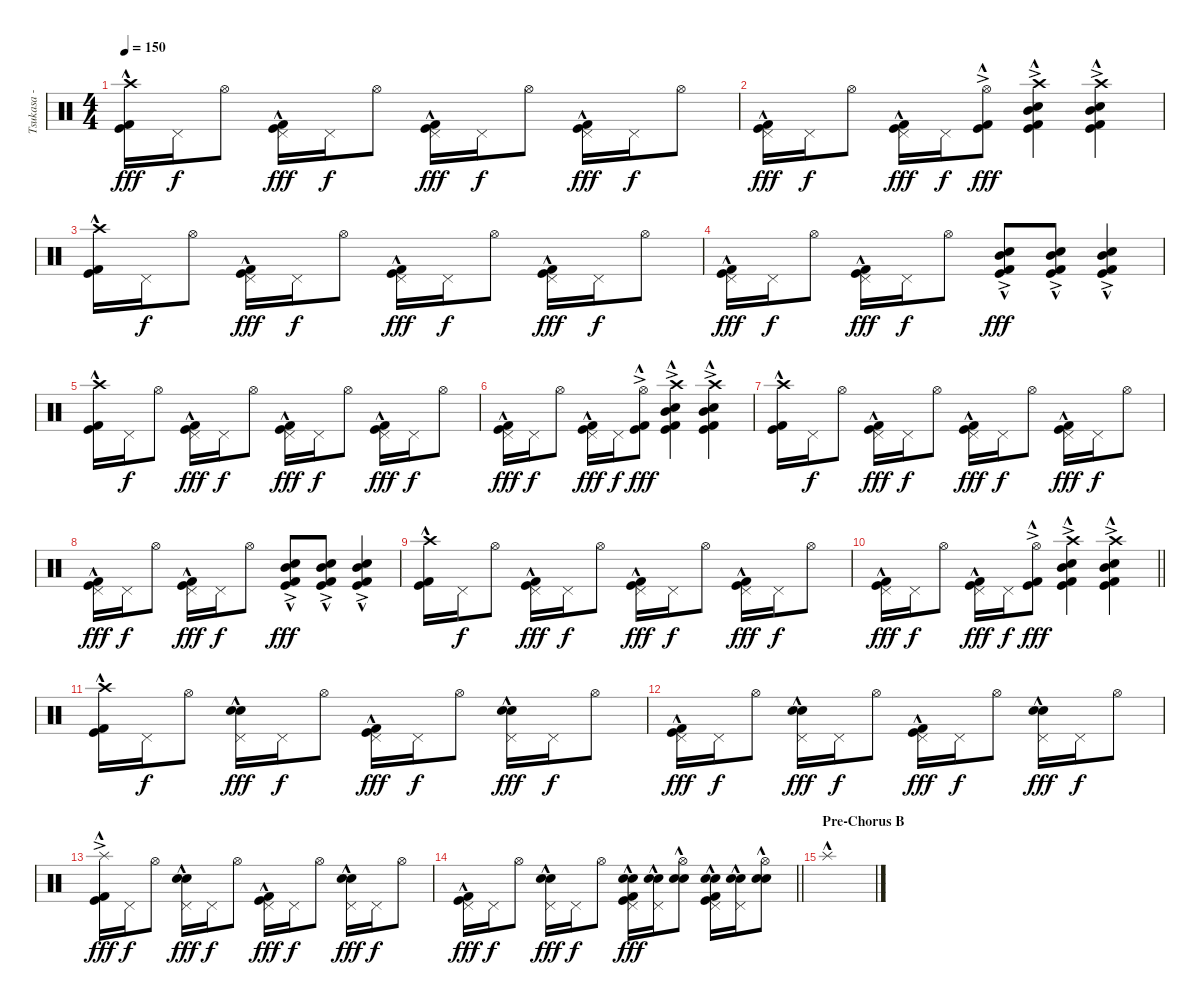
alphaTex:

\track ("Tsukasa - Drums" "Tsukasa - ") {instrument percussion}
\staff {score}
\articulation defaults
\ts (4 4)
\tempo 150
\clef neutral
\ks c
("Crash high (hit)" "Kick (hit)" "Kick (hit) 2"{hac}).16{dy fff} "Pedal Hi-Hat (hit)".16{dy f} "Hi-Hat (open)".8 ("Pedal Hi-Hat (hit)" "Kick (hit)" "Kick (hit) 2"{hac}).16{dy fff} "Pedal Hi-Hat (hit)".16{dy f} "Hi-Hat (open)".8 ("Pedal Hi-Hat (hit)" "Kick (hit)" "Kick (hit) 2"{hac}).16{dy fff} "Pedal Hi-Hat (hit)".16{dy f} "Hi-Hat (open)".8 ("Pedal Hi-Hat (hit)" "Kick (hit)" "Kick (hit) 2"{hac}).16{dy fff} "Pedal Hi-Hat (hit)".16{dy f} "Hi-Hat (open)".8 |
("Pedal Hi-Hat (hit)" "Kick (hit)" "Kick (hit) 2"{hac}).16{dy fff} "Pedal Hi-Hat (hit)".16{dy f} "Hi-Hat (open)".8 ("Pedal Hi-Hat (hit)" "Kick (hit)" "Kick (hit) 2"{hac}).16{dy fff} "Pedal Hi-Hat (hit)".16{dy f} ("Hi-Hat (open)" "Kick (hit)"{ac} "Kick (hit) 2"{hac}).8{dy fff} ("Crash high (hit)" "Electric Snare (hit)" "Mid Tom (hit)" "Kick (hit)"{ac} "Kick (hit) 2"{hac}).4 ("Crash high (hit)" "Electric Snare (hit)" "Mid Tom (hit)" "Kick (hit)"{ac} "Kick (hit) 2"{hac}).4 |
("Crash high (hit)" "Kick (hit)" "Kick (hit) 2"{hac}).16 "Pedal Hi-Hat (hit)".16{dy f} "Hi-Hat (open)".8 ("Pedal Hi-Hat (hit)" "Kick (hit)" "Kick (hit) 2"{hac}).16{dy fff} "Pedal Hi-Hat (hit)".16{dy f} "Hi-Hat (open)".8 ("Pedal Hi-Hat (hit)" "Kick (hit)" "Kick (hit) 2"{hac}).16{dy fff} "Pedal Hi-Hat (hit)".16{dy f} "Hi-Hat (open)".8 ("Pedal Hi-Hat (hit)" "Kick (hit)" "Kick (hit) 2"{hac}).16{dy fff} "Pedal Hi-Hat (hit)".16{dy f} "Hi-Hat (open)".8 |
("Pedal Hi-Hat (hit)" "Kick (hit)" "Kick (hit) 2"{hac}).16{dy fff} "Pedal Hi-Hat (hit)".16{dy f} "Hi-Hat (open)".8 ("Pedal Hi-Hat (hit)" "Kick (hit)" "Kick (hit) 2"{hac}).16{dy fff} "Pedal Hi-Hat (hit)".16{dy f} "Hi-Hat (open)".8 ("Electric Snare (hit)" "Mid Tom (hit)" "Kick (hit)"{ac} "Kick (hit) 2"{hac}).8{dy fff} ("Electric Snare (hit)" "Mid Tom (hit)" "Kick (hit)"{ac} "Kick (hit) 2"{hac}).8 ("Electric Snare (hit)" "Mid Tom (hit)" "Kick (hit)"{ac} "Kick (hit) 2"{hac}).4 |
("Crash high (hit)" "Kick (hit)" "Kick (hit) 2"{hac}).16 "Pedal Hi-Hat (hit)".16{dy f} "Hi-Hat (open)".8 ("Pedal Hi-Hat (hit)" "Kick (hit)" "Kick (hit) 2"{hac}).16{dy fff} "Pedal Hi-Hat (hit)".16{dy f} "Hi-Hat (open)".8 ("Pedal Hi-Hat (hit)" "Kick (hit)" "Kick (hit) 2"{hac}).16{dy fff} "Pedal Hi-Hat (hit)".16{dy f} "Hi-Hat (open)".8 ("Pedal Hi-Hat (hit)" "Kick (hit)" "Kick (hit) 2"{hac}).16{dy fff} "Pedal Hi-Hat (hit)".16{dy f} "Hi-Hat (open)".8 |
("Pedal Hi-Hat (hit)" "Kick (hit)" "Kick (hit) 2"{hac}).16{dy fff} "Pedal Hi-Hat (hit)".16{dy f} "Hi-Hat (open)".8 ("Pedal Hi-Hat (hit)" "Kick (hit)" "Kick (hit) 2"{hac}).16{dy fff} "Pedal Hi-Hat (hit)".16{dy f} ("Hi-Hat (open)" "Kick (hit)"{ac} "Kick (hit) 2"{hac}).8{dy fff} ("Crash high (hit)" "Electric Snare (hit)" "Mid Tom (hit)" "Kick (hit)"{ac} "Kick (hit) 2"{hac}).4 ("Crash high (hit)" "Electric Snare (hit)" "Mid Tom (hit)" "Kick (hit)"{ac} "Kick (hit) 2"{hac}).4 |
("Crash high (hit)" "Kick (hit)" "Kick (hit) 2"{hac}).16 "Pedal Hi-Hat (hit)".16{dy f} "Hi-Hat (open)".8 ("Pedal Hi-Hat (hit)" "Kick (hit)" "Kick (hit) 2"{hac}).16{dy fff} "Pedal Hi-Hat (hit)".16{dy f} "Hi-Hat (open)".8 ("Pedal Hi-Hat (hit)" "Kick (hit)" "Kick (hit) 2"{hac}).16{dy fff} "Pedal Hi-Hat (hit)".16{dy f} "Hi-Hat (open)".8 ("Pedal Hi-Hat (hit)" "Kick (hit)" "Kick (hit) 2"{hac}).16{dy fff} "Pedal Hi-Hat (hit)".16{dy f} "Hi-Hat (open)".8 |
("Pedal Hi-Hat (hit)" "Kick (hit)" "Kick (hit) 2"{hac}).16{dy fff} "Pedal Hi-Hat (hit)".16{dy f} "Hi-Hat (open)".8 ("Pedal Hi-Hat (hit)" "Kick (hit)" "Kick (hit) 2"{hac}).16{dy fff} "Pedal Hi-Hat (hit)".16{dy f} "Hi-Hat (open)".8 ("Electric Snare (hit)" "Mid Tom (hit)" "Kick (hit)"{ac} "Kick (hit) 2"{hac}).8{dy fff} ("Electric Snare (hit)" "Mid Tom (hit)" "Kick (hit)"{ac} "Kick (hit) 2"{hac}).8 ("Electric Snare (hit)" "Mid Tom (hit)" "Kick (hit)"{ac} "Kick (hit) 2"{hac}).4 |
("Crash high (hit)" "Kick (hit)" "Kick (hit) 2"{hac}).16 "Pedal Hi-Hat (hit)".16{dy f} "Hi-Hat (open)".8 ("Pedal Hi-Hat (hit)" "Kick (hit)" "Kick (hit) 2"{hac}).16{dy fff} "Pedal Hi-Hat (hit)".16{dy f} "Hi-Hat (open)".8 ("Pedal Hi-Hat (hit)" "Kick (hit)" "Kick (hit) 2"{hac}).16{dy fff} "Pedal Hi-Hat (hit)".16{dy f} "Hi-Hat (open)".8 ("Pedal Hi-Hat (hit)" "Kick (hit)" "Kick (hit) 2"{hac}).16{dy fff} "Pedal Hi-Hat (hit)".16{dy f} "Hi-Hat (open)".8 |
\barLineRight lightlight
("Pedal Hi-Hat (hit)" "Kick (hit)" "Kick (hit) 2"{hac}).16{dy fff} "Pedal Hi-Hat (hit)".16{dy f} "Hi-Hat (open)".8 ("Pedal Hi-Hat (hit)" "Kick (hit)" "Kick (hit) 2"{hac}).16{dy fff} "Pedal Hi-Hat (hit)".16{dy f} ("Hi-Hat (open)" "Kick (hit)"{ac} "Kick (hit) 2"{hac}).8{dy fff} ("Crash high (hit)" "Electric Snare (hit)" "Mid Tom (hit)" "Kick (hit)"{ac} "Kick (hit) 2"{hac}).4 ("Crash high (hit)" "Electric Snare (hit)" "Mid Tom (hit)" "Kick (hit)"{ac} "Kick (hit) 2"{hac}).4 |
\section ("" "")
("Crash high (hit)" "Kick (hit)" "Kick (hit) 2"{hac}).16 "Pedal Hi-Hat (hit)".16{dy f} "Hi-Hat (open)".8 ("Pedal Hi-Hat (hit)" "Electric Snare (hit)"{hac} "Snare (hit) 2").16{dy fff} "Pedal Hi-Hat (hit)".16{dy f} "Hi-Hat (open)".8 ("Pedal Hi-Hat (hit)" "Kick (hit)" "Kick (hit) 2"{hac}).16{dy fff} "Pedal Hi-Hat (hit)".16{dy f} "Hi-Hat (open)".8 ("Pedal Hi-Hat (hit)" "Electric Snare (hit)"{hac} "Snare (hit) 2").16{dy fff} "Pedal Hi-Hat (hit)".16{dy f} "Hi-Hat (open)".8 |
("Pedal Hi-Hat (hit)" "Kick (hit)" "Kick (hit) 2"{hac}).16{dy fff} "Pedal Hi-Hat (hit)".16{dy f} "Hi-Hat (open)".8 ("Pedal Hi-Hat (hit)" "Electric Snare (hit)"{hac} "Snare (hit) 2").16{dy fff} "Pedal Hi-Hat (hit)".16{dy f} "Hi-Hat (open)".8 ("Pedal Hi-Hat (hit)" "Kick (hit)" "Kick (hit) 2"{hac}).16{dy fff} "Pedal Hi-Hat (hit)".16{dy f} "Hi-Hat (open)".8 ("Pedal Hi-Hat (hit)" "Electric Snare (hit)"{hac} "Snare (hit) 2").16{dy fff} "Pedal Hi-Hat (hit)".16{dy f} "Hi-Hat (open)".8 |
("Splash (hit)"{ac} "Kick (hit)" "Kick (hit) 2"{hac}).16{dy fff} "Pedal Hi-Hat (hit)".16{dy f} "Hi-Hat (open)".8 ("Pedal Hi-Hat (hit)" "Electric Snare (hit)"{hac} "Snare (hit) 2").16{dy fff} "Pedal Hi-Hat (hit)".16{dy f} "Hi-Hat (open)".8 ("Pedal Hi-Hat (hit)" "Kick (hit)" "Kick (hit) 2"{hac}).16{dy fff} "Pedal Hi-Hat (hit)".16{dy f} "Hi-Hat (open)".8 ("Pedal Hi-Hat (hit)" "Electric Snare (hit)"{hac} "Snare (hit) 2").16{dy fff} "Pedal Hi-Hat (hit)".16{dy f} "Hi-Hat (open)".8 |
\barLineRight lightlight
("Pedal Hi-Hat (hit)" "Kick (hit)" "Kick (hit) 2"{hac}).16{dy fff} "Pedal Hi-Hat (hit)".16{dy f} "Hi-Hat (open)".8 ("Pedal Hi-Hat (hit)" "Electric Snare (hit)"{hac} "Snare (hit) 2").16{dy fff} "Pedal Hi-Hat (hit)".16{dy f} "Hi-Hat (open)".8 ("Pedal Hi-Hat (hit)" "Electric Snare (hit)"{hac} "Snare (hit) 2" "Kick (hit)" "Kick (hit) 2"{hac}).16{dy fff} ("Pedal Hi-Hat (hit)" "Electric Snare (hit)"{hac} "Snare (hit) 2").16 ("Hi-Hat (open)" "Electric Snare (hit)"{hac} "Snare (hit) 2").8 ("Pedal Hi-Hat (hit)" "Electric Snare (hit)"{hac} "Snare (hit) 2" "Kick (hit)"{hac} "Kick (hit) 2").16 ("Pedal Hi-Hat (hit)" "Electric Snare (hit)"{hac} "Snare (hit) 2").16 ("Hi-Hat (open)" "Electric Snare (hit)"{hac} "Snare (hit) 2").8 |
\section ("" "Pre-Chorus B")
"Splash (hit)"{hac}.1
